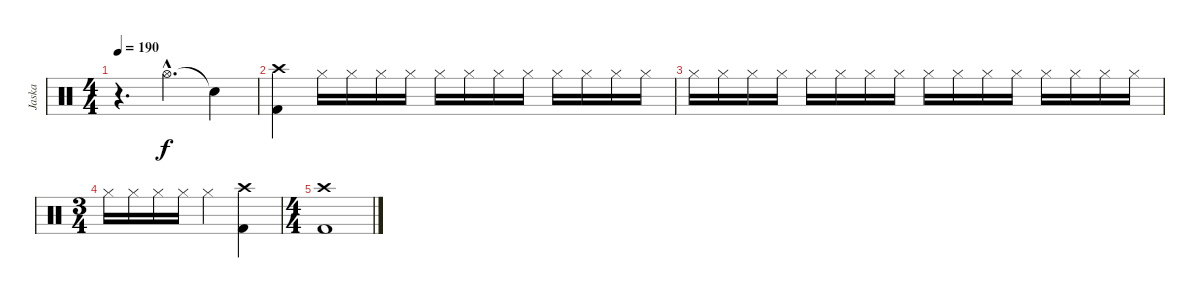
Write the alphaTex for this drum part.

\track ("Jaska" "Jaska") {instrument percussion}
\staff {score}
\articulation defaults
\ts (4 4)
\tempo 190
\clef neutral
\ks c
r.4{d dy f} "Hi-Hat (open)"{hac}.4{d} "Snare (hit)"{t}.4 |
("Crash high (hit)" "Kick (hit) 2").4 "Hi-Hat (closed)".16 "Hi-Hat (closed)".16 "Hi-Hat (closed)".16 "Hi-Hat (closed)".16 "Hi-Hat (closed)".16 "Hi-Hat (closed)".16 "Hi-Hat (closed)".16 "Hi-Hat (closed)".16 "Hi-Hat (closed)".16 "Hi-Hat (closed)".16 "Hi-Hat (closed)".16 "Hi-Hat (closed)".16 |
"Hi-Hat (closed)".16 "Hi-Hat (closed)".16 "Hi-Hat (closed)".16 "Hi-Hat (closed)".16 "Hi-Hat (closed)".16 "Hi-Hat (closed)".16 "Hi-Hat (closed)".16 "Hi-Hat (closed)".16 "Hi-Hat (closed)".16 "Hi-Hat (closed)".16 "Hi-Hat (closed)".16 "Hi-Hat (closed)".16 "Hi-Hat (closed)".16 "Hi-Hat (closed)".16 "Hi-Hat (closed)".16 "Hi-Hat (closed)".16 |
\ts (3 4)
"Hi-Hat (closed)".16 "Hi-Hat (closed)".16 "Hi-Hat (closed)".16 "Hi-Hat (closed)".16 "Hi-Hat (closed)".4 ("Crash high (hit)" "Kick (hit) 2").4 |
\ts (4 4)
("Crash high (hit)" "Kick (hit) 2").1
